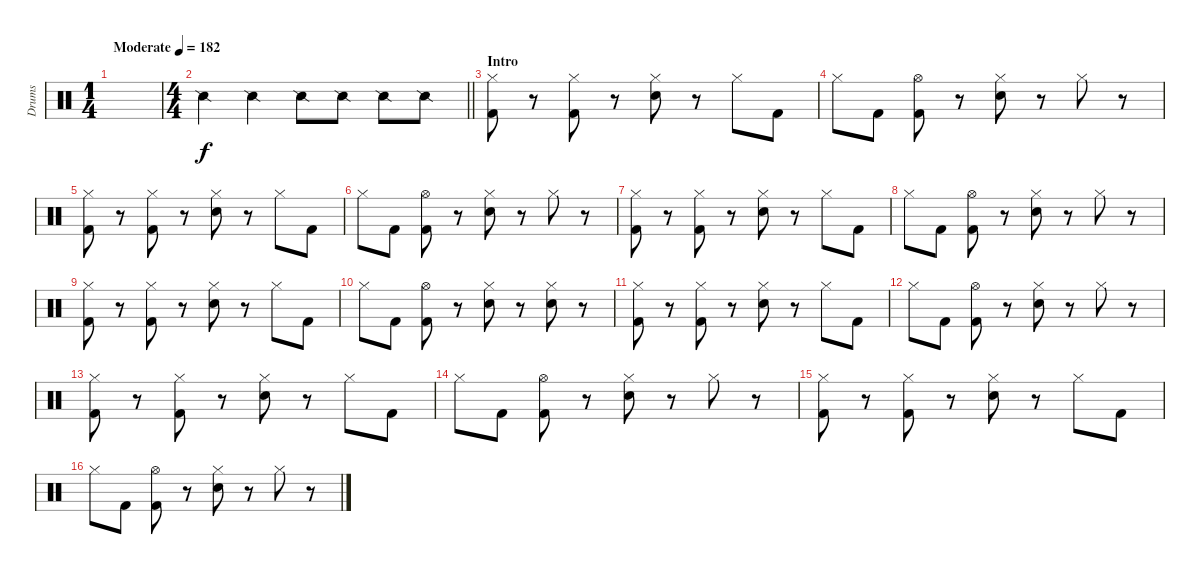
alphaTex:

\track ("Drums" "Drums") {instrument percussion}
\staff {score}
\articulation defaults
\ts (1 4)
\tempo (182 "Moderate")
\clef neutral
\ks c
|
\ts (4 4)
\barLineRight lightlight "Snare (side stick) 2".4 "Snare (side stick) 2".4 "Snare (side stick) 2".8 "Snare (side stick) 2".8 "Snare (side stick) 2".8 "Snare (side stick) 2".8
|
\section ("" "Intro")
("Hi-Hat (closed)" "Kick (hit) 2").8 r.8 ("Hi-Hat (closed)" "Kick (hit) 2").8 r.8 ("Hi-Hat (closed)" "Snare (hit) 2").8 r.8 "Hi-Hat (closed)".8 "Kick (hit) 2".8 |
"Hi-Hat (closed)".8 "Kick (hit) 2".8 ("Hi-Hat (open)" "Kick (hit) 2").8 r.8 ("Hi-Hat (closed)" "Snare (hit) 2").8 r.8 "Hi-Hat (closed)".8 r.8 |
("Hi-Hat (closed)" "Kick (hit) 2").8 r.8 ("Hi-Hat (closed)" "Kick (hit) 2").8 r.8 ("Hi-Hat (closed)" "Snare (hit) 2").8 r.8 "Hi-Hat (closed)".8 "Kick (hit) 2".8 |
"Hi-Hat (closed)".8 "Kick (hit) 2".8 ("Hi-Hat (open)" "Kick (hit) 2").8 r.8 ("Hi-Hat (closed)" "Snare (hit) 2").8 r.8 "Hi-Hat (closed)".8 r.8 |
("Hi-Hat (closed)" "Kick (hit) 2").8 r.8 ("Hi-Hat (closed)" "Kick (hit) 2").8 r.8 ("Hi-Hat (closed)" "Snare (hit) 2").8 r.8 "Hi-Hat (closed)".8 "Kick (hit) 2".8 |
"Hi-Hat (closed)".8 "Kick (hit) 2".8 ("Hi-Hat (open)" "Kick (hit) 2").8 r.8 ("Hi-Hat (closed)" "Snare (hit) 2").8 r.8 "Hi-Hat (closed)".8 r.8 |
("Hi-Hat (closed)" "Kick (hit) 2").8 r.8 ("Hi-Hat (closed)" "Kick (hit) 2").8 r.8 ("Hi-Hat (closed)" "Snare (hit) 2").8 r.8 "Hi-Hat (closed)".8 "Kick (hit) 2".8 |
"Hi-Hat (closed)".8 "Kick (hit) 2".8 ("Hi-Hat (open)" "Kick (hit) 2").8 r.8 ("Hi-Hat (closed)" "Snare (hit) 2").8 r.8 ("Hi-Hat (closed)" "Snare (hit) 2").8 r.8 |
("Hi-Hat (closed)" "Kick (hit) 2").8 r.8 ("Hi-Hat (closed)" "Kick (hit) 2").8 r.8 ("Hi-Hat (closed)" "Snare (hit) 2").8 r.8 "Hi-Hat (closed)".8 "Kick (hit) 2".8 |
"Hi-Hat (closed)".8 "Kick (hit) 2".8 ("Hi-Hat (open)" "Kick (hit) 2").8 r.8 ("Hi-Hat (closed)" "Snare (hit) 2").8 r.8 "Hi-Hat (closed)".8 r.8 |
("Hi-Hat (closed)" "Kick (hit) 2").8 r.8 ("Hi-Hat (closed)" "Kick (hit) 2").8 r.8 ("Hi-Hat (closed)" "Snare (hit) 2").8 r.8 "Hi-Hat (closed)".8 "Kick (hit) 2".8 |
"Hi-Hat (closed)".8 "Kick (hit) 2".8 ("Hi-Hat (open)" "Kick (hit) 2").8 r.8 ("Hi-Hat (closed)" "Snare (hit) 2").8 r.8 "Hi-Hat (closed)".8 r.8 |
("Hi-Hat (closed)" "Kick (hit) 2").8 r.8 ("Hi-Hat (closed)" "Kick (hit) 2").8 r.8 ("Hi-Hat (closed)" "Snare (hit) 2").8 r.8 "Hi-Hat (closed)".8 "Kick (hit) 2".8 |
"Hi-Hat (closed)".8 "Kick (hit) 2".8 ("Hi-Hat (open)" "Kick (hit) 2").8 r.8 ("Hi-Hat (closed)" "Snare (hit) 2").8 r.8 "Hi-Hat (closed)".8 r.8
